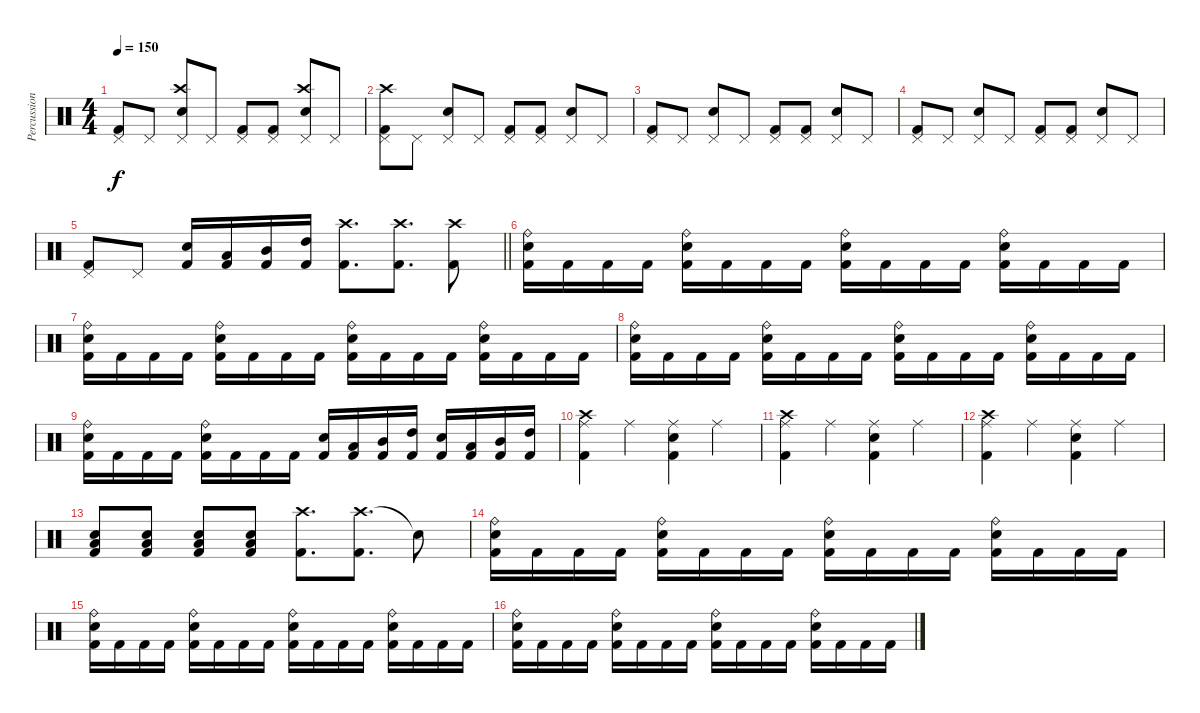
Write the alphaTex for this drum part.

\track ("Percussion" "Percussion") {instrument percussion}
\staff {score}
\articulation defaults
\ts (4 4)
\tempo 150
\clef neutral
\ks c
("Pedal Hi-Hat (hit)" "Kick (hit) 2").8{dy f} "Pedal Hi-Hat (hit)".8 ("Crash high (hit)" "Pedal Hi-Hat (hit)" "Electric Snare (hit)").8 "Pedal Hi-Hat (hit)".8 ("Pedal Hi-Hat (hit)" "Kick (hit) 2").8 ("Pedal Hi-Hat (hit)" "Kick (hit) 2").8 ("Crash high (hit)" "Pedal Hi-Hat (hit)" "Electric Snare (hit)").8 "Pedal Hi-Hat (hit)".8 |
("Pedal Hi-Hat (hit)" "Kick (hit) 2" "Crash high (hit)").8 "Pedal Hi-Hat (hit)".8 ("Pedal Hi-Hat (hit)" "Electric Snare (hit)").8 "Pedal Hi-Hat (hit)".8 ("Pedal Hi-Hat (hit)" "Kick (hit) 2").8 ("Pedal Hi-Hat (hit)" "Kick (hit) 2").8 ("Pedal Hi-Hat (hit)" "Electric Snare (hit)").8 "Pedal Hi-Hat (hit)".8 |
("Pedal Hi-Hat (hit)" "Kick (hit) 2").8 "Pedal Hi-Hat (hit)".8 ("Pedal Hi-Hat (hit)" "Electric Snare (hit)").8 "Pedal Hi-Hat (hit)".8 ("Pedal Hi-Hat (hit)" "Kick (hit) 2").8 ("Pedal Hi-Hat (hit)" "Kick (hit) 2").8 ("Pedal Hi-Hat (hit)" "Electric Snare (hit)").8 "Pedal Hi-Hat (hit)".8 |
("Pedal Hi-Hat (hit)" "Kick (hit) 2").8 "Pedal Hi-Hat (hit)".8 ("Pedal Hi-Hat (hit)" "Electric Snare (hit)").8 "Pedal Hi-Hat (hit)".8 ("Pedal Hi-Hat (hit)" "Kick (hit) 2").8 ("Pedal Hi-Hat (hit)" "Kick (hit) 2").8 ("Pedal Hi-Hat (hit)" "Electric Snare (hit)").8 "Pedal Hi-Hat (hit)".8 |
\barLineRight lightlight
("Kick (hit) 2" "Pedal Hi-Hat (hit)").8 "Pedal Hi-Hat (hit)".8 ("Kick (hit) 2" "Electric Snare (hit)").16 ("Kick (hit) 2" "Low Tom (hit)").16 ("Kick (hit) 2" "Mid Tom (hit)").16 ("Kick (hit) 2" "High Tom (hit)").16 ("Crash high (hit)" "Kick (hit) 2").8{d} ("Crash high (hit)" "Kick (hit) 2").8{d} ("Crash high (hit)" "Kick (hit) 2").8 |
("Kick (hit) 2" "Ride (bell)" "Electric Snare (hit)").16 "Kick (hit) 2".16 "Kick (hit) 2".16 "Kick (hit) 2".16 ("Kick (hit) 2" "Ride (bell)" "Electric Snare (hit)").16 "Kick (hit) 2".16 "Kick (hit) 2".16 "Kick (hit) 2".16 ("Kick (hit) 2" "Ride (bell)" "Electric Snare (hit)").16 "Kick (hit) 2".16 "Kick (hit) 2".16 "Kick (hit) 2".16 ("Kick (hit) 2" "Ride (bell)" "Electric Snare (hit)").16 "Kick (hit) 2".16 "Kick (hit) 2".16 "Kick (hit) 2".16 |
("Kick (hit) 2" "Ride (bell)" "Electric Snare (hit)").16 "Kick (hit) 2".16 "Kick (hit) 2".16 "Kick (hit) 2".16 ("Kick (hit) 2" "Ride (bell)" "Electric Snare (hit)").16 "Kick (hit) 2".16 "Kick (hit) 2".16 "Kick (hit) 2".16 ("Kick (hit) 2" "Ride (bell)" "Electric Snare (hit)").16 "Kick (hit) 2".16 "Kick (hit) 2".16 "Kick (hit) 2".16 ("Kick (hit) 2" "Ride (bell)" "Electric Snare (hit)").16 "Kick (hit) 2".16 "Kick (hit) 2".16 "Kick (hit) 2".16 |
("Kick (hit) 2" "Ride (bell)" "Electric Snare (hit)").16 "Kick (hit) 2".16 "Kick (hit) 2".16 "Kick (hit) 2".16 ("Kick (hit) 2" "Ride (bell)" "Electric Snare (hit)").16 "Kick (hit) 2".16 "Kick (hit) 2".16 "Kick (hit) 2".16 ("Kick (hit) 2" "Ride (bell)" "Electric Snare (hit)").16 "Kick (hit) 2".16 "Kick (hit) 2".16 "Kick (hit) 2".16 ("Kick (hit) 2" "Ride (bell)" "Electric Snare (hit)").16 "Kick (hit) 2".16 "Kick (hit) 2".16 "Kick (hit) 2".16 |
("Kick (hit) 2" "Ride (bell)" "Electric Snare (hit)").16 "Kick (hit) 2".16 "Kick (hit) 2".16 "Kick (hit) 2".16 ("Kick (hit) 2" "Ride (bell)" "Electric Snare (hit)").16 "Kick (hit) 2".16 "Kick (hit) 2".16 "Kick (hit) 2".16 ("Kick (hit) 2" "Electric Snare (hit)").16 ("Kick (hit) 2" "Low Tom (hit)").16 ("Kick (hit) 2" "Mid Tom (hit)").16 ("Kick (hit) 2" "High Tom (hit)").16 ("Kick (hit) 2" "Electric Snare (hit)").16 ("Kick (hit) 2" "Low Tom (hit)").16 ("Kick (hit) 2" "Mid Tom (hit)").16 ("Kick (hit) 2" "High Tom (hit)").16 |
("Ride (middle)" "Kick (hit) 2" "Crash high (hit)").4 "Ride (middle)".4 ("Ride (middle)" "Kick (hit) 2" "Electric Snare (hit)").4 "Ride (middle)".4 |
("Ride (middle)" "Kick (hit) 2" "Crash high (hit)").4 "Ride (middle)".4 ("Ride (middle)" "Kick (hit) 2" "Electric Snare (hit)").4 "Ride (middle)".4 |
("Ride (middle)" "Kick (hit) 2" "Crash high (hit)").4 "Ride (middle)".4 ("Ride (middle)" "Kick (hit) 2" "Electric Snare (hit)").4 "Ride (middle)".4 |
("Electric Snare (hit)" "Low Tom (hit)" "Kick (hit) 2").8 ("Electric Snare (hit)" "Low Tom (hit)" "Kick (hit) 2").8 ("Electric Snare (hit)" "Low Tom (hit)" "Kick (hit) 2").8 ("Electric Snare (hit)" "Low Tom (hit)" "Kick (hit) 2").8 ("Crash high (hit)" "Kick (hit) 2").8{d} ("Crash high (hit)" "Kick (hit) 2").8{d} "Snare (hit)"{t}.8 |
("Kick (hit) 2" "Ride (bell)" "Electric Snare (hit)").16 "Kick (hit) 2".16 "Kick (hit) 2".16 "Kick (hit) 2".16 ("Kick (hit) 2" "Ride (bell)" "Electric Snare (hit)").16 "Kick (hit) 2".16 "Kick (hit) 2".16 "Kick (hit) 2".16 ("Kick (hit) 2" "Ride (bell)" "Electric Snare (hit)").16 "Kick (hit) 2".16 "Kick (hit) 2".16 "Kick (hit) 2".16 ("Kick (hit) 2" "Ride (bell)" "Electric Snare (hit)").16 "Kick (hit) 2".16 "Kick (hit) 2".16 "Kick (hit) 2".16 |
("Kick (hit) 2" "Ride (bell)" "Electric Snare (hit)").16 "Kick (hit) 2".16 "Kick (hit) 2".16 "Kick (hit) 2".16 ("Kick (hit) 2" "Ride (bell)" "Electric Snare (hit)").16 "Kick (hit) 2".16 "Kick (hit) 2".16 "Kick (hit) 2".16 ("Kick (hit) 2" "Ride (bell)" "Electric Snare (hit)").16 "Kick (hit) 2".16 "Kick (hit) 2".16 "Kick (hit) 2".16 ("Kick (hit) 2" "Ride (bell)" "Electric Snare (hit)").16 "Kick (hit) 2".16 "Kick (hit) 2".16 "Kick (hit) 2".16 |
("Kick (hit) 2" "Ride (bell)" "Electric Snare (hit)").16 "Kick (hit) 2".16 "Kick (hit) 2".16 "Kick (hit) 2".16 ("Kick (hit) 2" "Ride (bell)" "Electric Snare (hit)").16 "Kick (hit) 2".16 "Kick (hit) 2".16 "Kick (hit) 2".16 ("Kick (hit) 2" "Ride (bell)" "Electric Snare (hit)").16 "Kick (hit) 2".16 "Kick (hit) 2".16 "Kick (hit) 2".16 ("Kick (hit) 2" "Ride (bell)" "Electric Snare (hit)").16 "Kick (hit) 2".16 "Kick (hit) 2".16 "Kick (hit) 2".16
